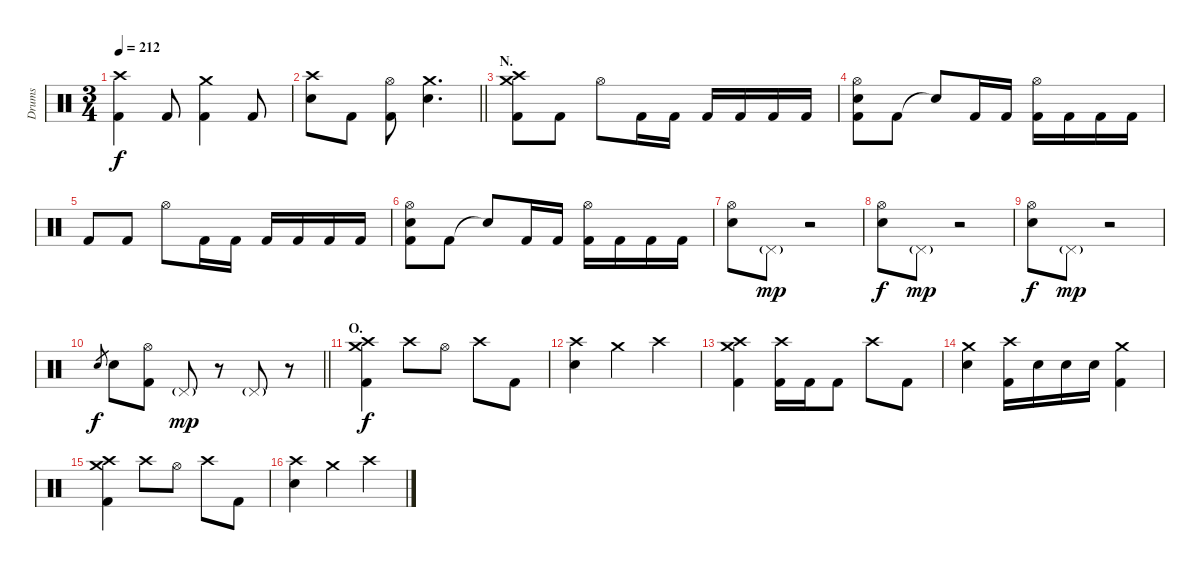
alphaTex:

\track ("Drums" "Drums") {instrument percussion}
\staff {score}
\articulation defaults
\ts (3 4)
\tempo 212
\clef neutral
\ks c
("Crash high (hit)" "Kick (hit) 2").4{dy f} "Kick (hit) 2".8 ("Crash medium (hit)" "Kick (hit) 2").4 "Kick (hit) 2".8 |
\barLineRight lightlight
("Crash high (hit)" "Electric Snare (hit)").8 "Kick (hit) 2".8 ("Hi-Hat (open)" "Kick (hit) 2").8 ("Crash medium (hit)" "Electric Snare (hit)").4{d} |
\section ("" "N.")
("Crash medium (hit)" "Crash high (hit)" "Kick (hit) 2").8 "Kick (hit) 2".8 "Hi-Hat (open)".8 "Kick (hit) 2".16 "Kick (hit) 2".16 "Kick (hit) 2".16 "Kick (hit) 2".16 "Kick (hit) 2".16 "Kick (hit) 2".16 |
("Hi-Hat (open)" "Electric Snare (hit)" "Kick (hit) 2").8 "Kick (hit) 2".8 "Snare (hit)"{t}.8 "Kick (hit) 2".16 "Kick (hit) 2".16 ("Hi-Hat (open)" "Kick (hit) 2").16 "Kick (hit) 2".16 "Kick (hit) 2".16 "Kick (hit) 2".16 |
"Kick (hit) 2".8 "Kick (hit) 2".8 "Hi-Hat (open)".8 "Kick (hit) 2".16 "Kick (hit) 2".16 "Kick (hit) 2".16 "Kick (hit) 2".16 "Kick (hit) 2".16 "Kick (hit) 2".16 |
("Hi-Hat (open)" "Electric Snare (hit)" "Kick (hit) 2").8 "Kick (hit) 2".8 "Snare (hit)"{t}.8 "Kick (hit) 2".16 "Kick (hit) 2".16 ("Hi-Hat (open)" "Kick (hit) 2").16 "Kick (hit) 2".16 "Kick (hit) 2".16 "Kick (hit) 2".16 |
("Hi-Hat (open)" "Electric Snare (hit)").8 "Pedal Hi-Hat (hit)"{g}.8{dy mp} r.2 |
("Hi-Hat (open)" "Electric Snare (hit)").8{dy f} "Pedal Hi-Hat (hit)"{g}.8{dy mp} r.2 |
("Hi-Hat (open)" "Electric Snare (hit)").8{dy f} "Pedal Hi-Hat (hit)"{g}.8{dy mp} r.2 |
\barLineRight lightlight "Electric Snare (hit)".8{gr dy f} "Electric Snare (hit)".8
("Hi-Hat (open)" "Kick (hit) 2").8 "Pedal Hi-Hat (hit)"{g}.8{dy mp} r.8 "Pedal Hi-Hat (hit)"{g}.8 r.8 |
\section ("" "O.")
("Crash medium (hit)" "Crash high (hit)" "Kick (hit) 2").4{dy f} "Crash high (hit)".8 "Hi-Hat (open)".8 "Crash high (hit)".8 "Kick (hit) 2".8 |
("Crash high (hit)" "Electric Snare (hit)").4 "Crash medium (hit)".4 "Crash high (hit)".4 |
("Crash medium (hit)" "Crash high (hit)" "Kick (hit) 2").4 ("Crash high (hit)" "Kick (hit) 2").16 "Kick (hit) 2".16 "Kick (hit) 2".8 "Crash high (hit)".8 "Kick (hit) 2".8 |
("Crash medium (hit)" "Electric Snare (hit)").4 ("Crash high (hit)" "Kick (hit) 2").16 "Electric Snare (hit)".16 "Electric Snare (hit)".16 "Electric Snare (hit)".16 ("Crash medium (hit)" "Kick (hit) 2").4 |
("Crash medium (hit)" "Crash high (hit)" "Kick (hit) 2").4 "Crash high (hit)".8 "Hi-Hat (open)".8 "Crash high (hit)".8 "Kick (hit) 2".8 |
("Crash high (hit)" "Electric Snare (hit)").4 "Crash medium (hit)".4 "Crash high (hit)".4
